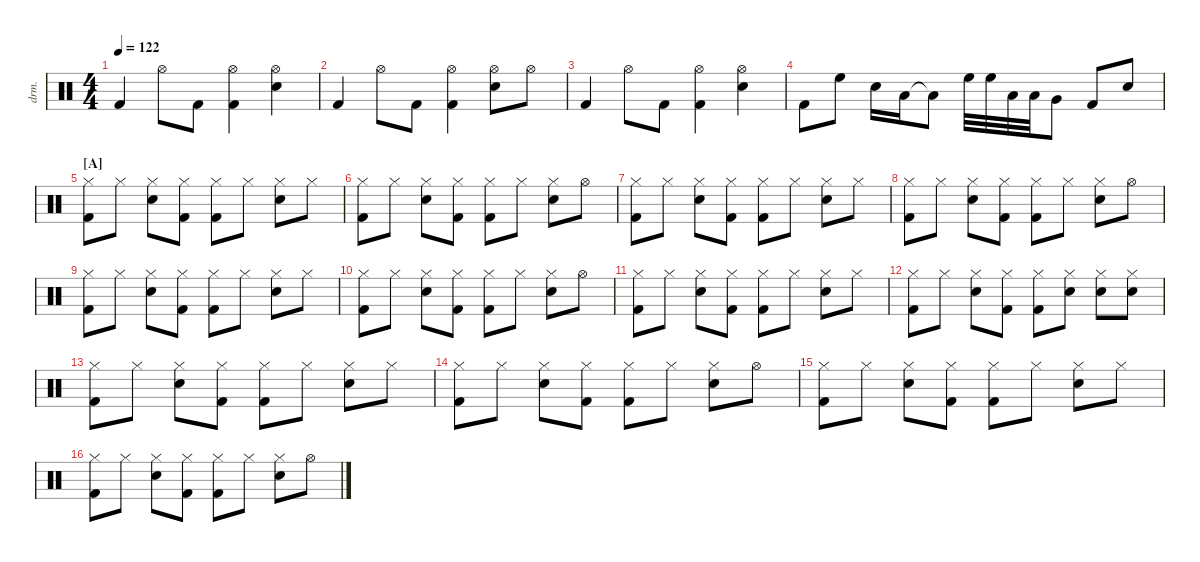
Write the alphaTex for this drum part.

\defaultSystemsLayout 4
\hideDynamics
\bracketExtendMode nobrackets
\track ("Drumkit" "drm.") {defaultSystemsLayout 4 instrument percussion}
\staff {score}
\articulation defaults
\ts (4 4)
\tempo 122
\clef neutral
\ks c "Kick (hit) 2".4{dy f} "Hi-Hat (open)".8 "Kick (hit) 2".8
("Hi-Hat (open)" "Kick (hit) 2").4 ("Hi-Hat (open)" "Snare (hit) 2").4 |
"Kick (hit) 2".4 "Hi-Hat (open)".8 "Kick (hit) 2".8 ("Hi-Hat (open)" "Kick (hit) 2").4 ("Hi-Hat (open)" "Snare (hit) 2").8 "Hi-Hat (open)".8 |
"Kick (hit) 2".4 "Hi-Hat (open)".8 "Kick (hit) 2".8 ("Hi-Hat (open)" "Kick (hit) 2").4 ("Hi-Hat (open)" "Snare (hit) 2").4 |
"Kick (hit) 2".8 "High Floor Tom (hit)".8 "Snare (hit) 2".16 "Low Tom (hit)".16 "Low Tom (hit)"{t}.8 "High Floor Tom (hit)".32 "High Floor Tom (hit)".32 "Low Tom (hit)".32 "Low Tom (hit)".32 "Very Low Tom (hit)".8 "Kick (hit) 2".8 "Snare (hit) 2".8 |
\section ("A" "")
("Hi-Hat (closed)" "Kick (hit) 2").8 "Hi-Hat (closed)".8 ("Hi-Hat (closed)" "Snare (hit) 2").8 ("Hi-Hat (closed)" "Kick (hit) 2").8 ("Hi-Hat (closed)" "Kick (hit) 2").8 "Hi-Hat (closed)".8 ("Hi-Hat (closed)" "Snare (hit) 2").8 "Hi-Hat (closed)".8 |
("Hi-Hat (closed)" "Kick (hit) 2").8 "Hi-Hat (closed)".8 ("Hi-Hat (closed)" "Snare (hit) 2").8 ("Hi-Hat (closed)" "Kick (hit) 2").8 ("Hi-Hat (closed)" "Kick (hit) 2").8 "Hi-Hat (closed)".8 ("Hi-Hat (closed)" "Snare (hit) 2").8 "Hi-Hat (open)".8 |
("Hi-Hat (closed)" "Kick (hit) 2").8 "Hi-Hat (closed)".8 ("Hi-Hat (closed)" "Snare (hit) 2").8 ("Hi-Hat (closed)" "Kick (hit) 2").8 ("Hi-Hat (closed)" "Kick (hit) 2").8 "Hi-Hat (closed)".8 ("Hi-Hat (closed)" "Snare (hit) 2").8 "Hi-Hat (closed)".8 |
("Hi-Hat (closed)" "Kick (hit) 2").8 "Hi-Hat (closed)".8 ("Hi-Hat (closed)" "Snare (hit) 2").8 ("Hi-Hat (closed)" "Kick (hit) 2").8 ("Hi-Hat (closed)" "Kick (hit) 2").8 "Hi-Hat (closed)".8 ("Hi-Hat (closed)" "Snare (hit) 2").8 "Hi-Hat (open)".8 |
("Hi-Hat (closed)" "Kick (hit) 2").8 "Hi-Hat (closed)".8 ("Hi-Hat (closed)" "Snare (hit) 2").8 ("Hi-Hat (closed)" "Kick (hit) 2").8 ("Hi-Hat (closed)" "Kick (hit) 2").8 "Hi-Hat (closed)".8 ("Hi-Hat (closed)" "Snare (hit) 2").8 "Hi-Hat (closed)".8 |
("Hi-Hat (closed)" "Kick (hit) 2").8 "Hi-Hat (closed)".8 ("Hi-Hat (closed)" "Snare (hit) 2").8 ("Hi-Hat (closed)" "Kick (hit) 2").8 ("Hi-Hat (closed)" "Kick (hit) 2").8 "Hi-Hat (closed)".8 ("Hi-Hat (closed)" "Snare (hit) 2").8 "Hi-Hat (open)".8 |
("Hi-Hat (closed)" "Kick (hit) 2").8 "Hi-Hat (closed)".8 ("Hi-Hat (closed)" "Snare (hit) 2").8 ("Hi-Hat (closed)" "Kick (hit) 2").8 ("Hi-Hat (closed)" "Kick (hit) 2").8 "Hi-Hat (closed)".8 ("Hi-Hat (closed)" "Snare (hit) 2").8 "Hi-Hat (closed)".8 |
("Hi-Hat (closed)" "Kick (hit) 2").8 "Hi-Hat (closed)".8 ("Hi-Hat (closed)" "Snare (hit) 2").8 ("Hi-Hat (closed)" "Kick (hit) 2").8 ("Hi-Hat (closed)" "Kick (hit) 2").8 ("Hi-Hat (closed)" "Snare (hit) 2").8 ("Hi-Hat (closed)" "Snare (hit) 2").8 ("Hi-Hat (closed)" "Snare (hit) 2").8 |
("Hi-Hat (closed)" "Kick (hit) 2").8 "Hi-Hat (closed)".8 ("Hi-Hat (closed)" "Snare (hit) 2").8 ("Hi-Hat (closed)" "Kick (hit) 2").8 ("Hi-Hat (closed)" "Kick (hit) 2").8 "Hi-Hat (closed)".8 ("Hi-Hat (closed)" "Snare (hit) 2").8 "Hi-Hat (closed)".8 |
("Hi-Hat (closed)" "Kick (hit) 2").8 "Hi-Hat (closed)".8 ("Hi-Hat (closed)" "Snare (hit) 2").8 ("Hi-Hat (closed)" "Kick (hit) 2").8 ("Hi-Hat (closed)" "Kick (hit) 2").8 "Hi-Hat (closed)".8 ("Hi-Hat (closed)" "Snare (hit) 2").8 "Hi-Hat (open)".8 |
("Hi-Hat (closed)" "Kick (hit) 2").8 "Hi-Hat (closed)".8 ("Hi-Hat (closed)" "Snare (hit) 2").8 ("Hi-Hat (closed)" "Kick (hit) 2").8 ("Hi-Hat (closed)" "Kick (hit) 2").8 "Hi-Hat (closed)".8 ("Hi-Hat (closed)" "Snare (hit) 2").8 "Hi-Hat (closed)".8 |
("Hi-Hat (closed)" "Kick (hit) 2").8 "Hi-Hat (closed)".8 ("Hi-Hat (closed)" "Snare (hit) 2").8 ("Hi-Hat (closed)" "Kick (hit) 2").8 ("Hi-Hat (closed)" "Kick (hit) 2").8 "Hi-Hat (closed)".8 ("Hi-Hat (closed)" "Snare (hit) 2").8 "Hi-Hat (open)".8
